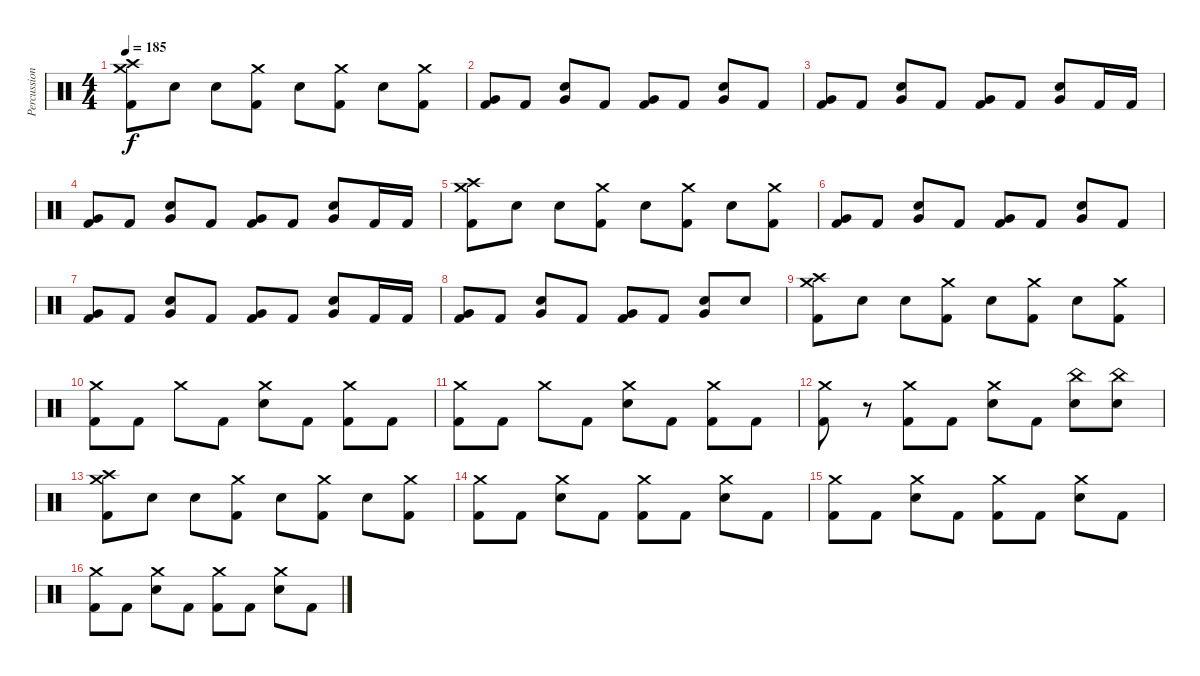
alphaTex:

\track ("Percussion" "Percussion") {instrument percussion}
\staff {score}
\articulation defaults
\ts (4 4)
\tempo 185
\clef neutral
\ks c
("Kick (hit) 2" "Crash medium (hit)" "Crash high (hit)").8{dy f} "Electric Snare (hit)".8 "Electric Snare (hit)".8 ("Kick (hit) 2" "Crash medium (hit)").8 "Electric Snare (hit)".8 ("Kick (hit) 2" "Crash medium (hit)").8 "Electric Snare (hit)".8 ("Kick (hit) 2" "Crash medium (hit)").8 |
("Kick (hit) 2" "Very Low Tom (hit)").8 "Kick (hit) 2".8 ("Electric Snare (hit)" "Very Low Tom (hit)").8 "Kick (hit) 2".8 ("Kick (hit) 2" "Very Low Tom (hit)").8 "Kick (hit) 2".8 ("Electric Snare (hit)" "Very Low Tom (hit)").8 "Kick (hit) 2".8 |
("Kick (hit) 2" "Very Low Tom (hit)").8 "Kick (hit) 2".8 ("Electric Snare (hit)" "Very Low Tom (hit)").8 "Kick (hit) 2".8 ("Kick (hit) 2" "Very Low Tom (hit)").8 "Kick (hit) 2".8 ("Electric Snare (hit)" "Very Low Tom (hit)").8 "Kick (hit) 2".16 "Kick (hit) 2".16 |
("Kick (hit) 2" "Very Low Tom (hit)").8 "Kick (hit) 2".8 ("Electric Snare (hit)" "Very Low Tom (hit)").8 "Kick (hit) 2".8 ("Kick (hit) 2" "Very Low Tom (hit)").8 "Kick (hit) 2".8 ("Electric Snare (hit)" "Very Low Tom (hit)").8 "Kick (hit) 2".16 "Kick (hit) 2".16 |
("Kick (hit) 2" "Crash medium (hit)" "Crash high (hit)").8 "Electric Snare (hit)".8 "Electric Snare (hit)".8 ("Kick (hit) 2" "Crash medium (hit)").8 "Electric Snare (hit)".8 ("Kick (hit) 2" "Crash medium (hit)").8 "Electric Snare (hit)".8 ("Kick (hit) 2" "Crash medium (hit)").8 |
("Kick (hit) 2" "Very Low Tom (hit)").8 "Kick (hit) 2".8 ("Electric Snare (hit)" "Very Low Tom (hit)").8 "Kick (hit) 2".8 ("Kick (hit) 2" "Very Low Tom (hit)").8 "Kick (hit) 2".8 ("Electric Snare (hit)" "Very Low Tom (hit)").8 "Kick (hit) 2".8 |
("Kick (hit) 2" "Very Low Tom (hit)").8 "Kick (hit) 2".8 ("Electric Snare (hit)" "Very Low Tom (hit)").8 "Kick (hit) 2".8 ("Kick (hit) 2" "Very Low Tom (hit)").8 "Kick (hit) 2".8 ("Electric Snare (hit)" "Very Low Tom (hit)").8 "Kick (hit) 2".16 "Kick (hit) 2".16 |
("Kick (hit) 2" "Very Low Tom (hit)").8 "Kick (hit) 2".8 ("Electric Snare (hit)" "Very Low Tom (hit)").8 "Kick (hit) 2".8 ("Kick (hit) 2" "Very Low Tom (hit)").8 "Kick (hit) 2".8 ("Electric Snare (hit)" "Very Low Tom (hit)").8 "Electric Snare (hit)".8 |
("Kick (hit) 2" "Crash medium (hit)" "Crash high (hit)").8 "Electric Snare (hit)".8 "Electric Snare (hit)".8 ("Kick (hit) 2" "Crash medium (hit)").8 "Electric Snare (hit)".8 ("Kick (hit) 2" "Crash medium (hit)").8 "Electric Snare (hit)".8 ("Kick (hit) 2" "Crash medium (hit)").8 |
("Kick (hit) 2" "Crash medium (hit)").8 "Kick (hit) 2".8 "Crash medium (hit)".8 "Kick (hit) 2".8 ("Electric Snare (hit)" "Crash medium (hit)").8 "Kick (hit) 2".8 ("Kick (hit) 2" "Crash medium (hit)").8 "Kick (hit) 2".8 |
("Kick (hit) 2" "Crash medium (hit)").8 "Kick (hit) 2".8 "Crash medium (hit)".8 "Kick (hit) 2".8 ("Electric Snare (hit)" "Crash medium (hit)").8 "Kick (hit) 2".8 ("Kick (hit) 2" "Crash medium (hit)").8 "Kick (hit) 2".8 |
("Kick (hit) 2" "Crash medium (hit)").8 r.8 ("Kick (hit) 2" "Crash medium (hit)").8 "Kick (hit) 2".8 ("Electric Snare (hit)" "Crash medium (hit)").8 "Kick (hit) 2".8 ("Electric Snare (hit)" "China (hit)").8 ("Electric Snare (hit)" "China (hit)").8 |
("Kick (hit) 2" "Crash medium (hit)" "Crash high (hit)").8 "Electric Snare (hit)".8 "Electric Snare (hit)".8 ("Kick (hit) 2" "Crash medium (hit)").8 "Electric Snare (hit)".8 ("Kick (hit) 2" "Crash medium (hit)").8 "Electric Snare (hit)".8 ("Kick (hit) 2" "Crash medium (hit)").8 |
("Kick (hit) 2" "Crash medium (hit)").8 "Kick (hit) 2".8 ("Electric Snare (hit)" "Crash medium (hit)").8 "Kick (hit) 2".8 ("Kick (hit) 2" "Crash medium (hit)").8 "Kick (hit) 2".8 ("Electric Snare (hit)" "Crash medium (hit)").8 "Kick (hit) 2".8 |
("Kick (hit) 2" "Crash medium (hit)").8 "Kick (hit) 2".8 ("Electric Snare (hit)" "Crash medium (hit)").8 "Kick (hit) 2".8 ("Kick (hit) 2" "Crash medium (hit)").8 "Kick (hit) 2".8 ("Electric Snare (hit)" "Crash medium (hit)").8 "Kick (hit) 2".8 |
("Kick (hit) 2" "Crash medium (hit)").8 "Kick (hit) 2".8 ("Electric Snare (hit)" "Crash medium (hit)").8 "Kick (hit) 2".8 ("Kick (hit) 2" "Crash medium (hit)").8 "Kick (hit) 2".8 ("Electric Snare (hit)" "Crash medium (hit)").8 "Kick (hit) 2".8
